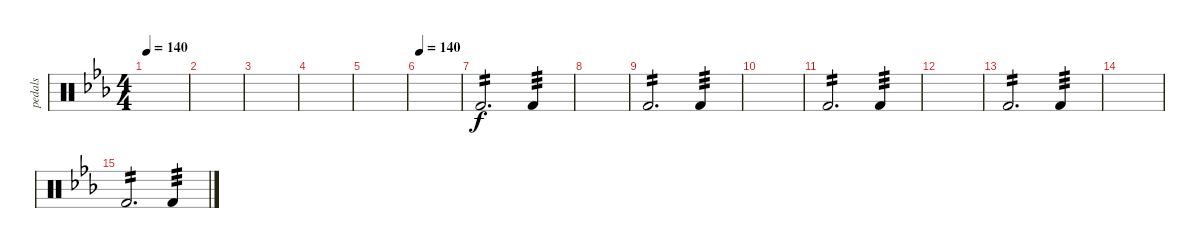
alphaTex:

\track ("pedals" "pedals") {instrument percussion}
\staff {score}
\articulation defaults
\ts (4 4)
\tempo 140
\clef neutral
\ks cminor
|
|
|
|
|
\tempo 140
|
"Kick (hit) 2".2{d tp 2} "Kick (hit) 2".4{tp 3} |
|
"Kick (hit) 2".2{d tp 2} "Kick (hit) 2".4{tp 3} |
|
"Kick (hit) 2".2{d tp 2} "Kick (hit) 2".4{tp 3} |
|
"Kick (hit) 2".2{d tp 2} "Kick (hit) 2".4{tp 3} |
|
"Kick (hit) 2".2{d tp 2} "Kick (hit) 2".4{tp 3}
